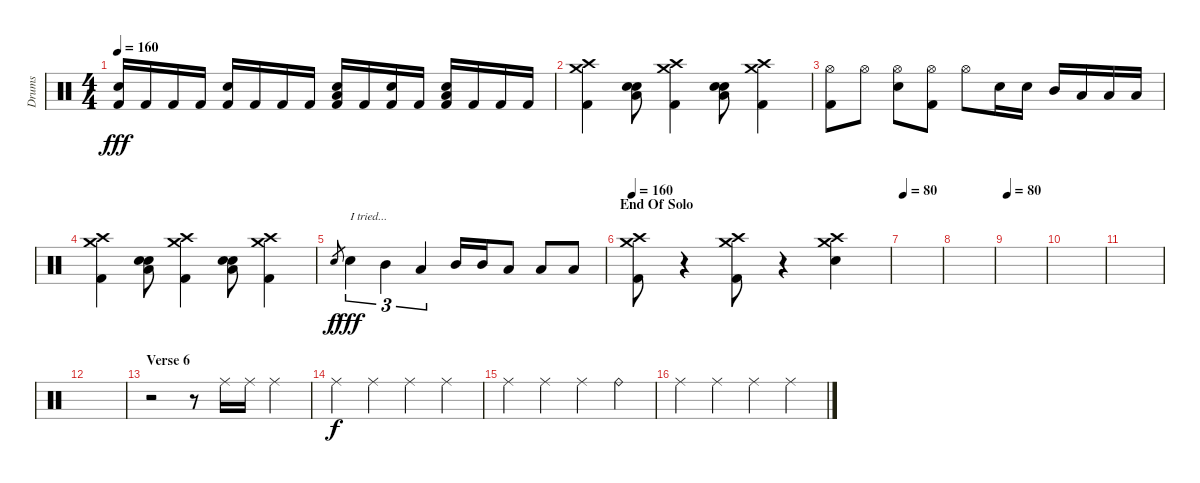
\track ("Drums" "Drums") {instrument percussion}
\staff {score}
\articulation defaults
\ts (4 4)
\tempo 160
\clef neutral
\ks c
("Snare (hit) 2" "Kick (hit) 2").16{dy fff} "Kick (hit) 2".16 "Kick (hit) 2".16 "Kick (hit) 2".16 ("Snare (hit) 2" "Kick (hit) 2").16 "Kick (hit) 2".16 "Kick (hit) 2".16 "Kick (hit) 2".16 ("Snare (hit) 2" "Low Floor Tom (hit)" "Kick (hit) 2").16 "Kick (hit) 2".16 ("Snare (hit) 2" "Kick (hit) 2").16 "Kick (hit) 2".16 ("Snare (hit) 2" "Low Floor Tom (hit)" "Kick (hit) 2").16 "Kick (hit) 2".16 "Kick (hit) 2".16 "Kick (hit) 2".16 |
("Crash medium (hit)" "Crash high (hit)" "Kick (hit) 2").4 ("Snare (hit) 2" "Electric Snare (hit)" "Low Floor Tom (hit)").8 ("Crash medium (hit)" "Crash high (hit)" "Kick (hit) 2").4 ("Snare (hit) 2" "Electric Snare (hit)" "Low Floor Tom (hit)").8 ("Crash medium (hit)" "Crash high (hit)" "Kick (hit) 2").4 |
("Hi-Hat (open)" "Kick (hit) 2").8 "Hi-Hat (open)".8 ("Hi-Hat (open)" "Snare (hit) 2").8 ("Hi-Hat (open)" "Kick (hit) 2").8 "Hi-Hat (open)".8 "Snare (hit) 2".16 "Snare (hit) 2".16 "Mid Tom (hit)".16 "Low Tom (hit)".16 "Low Tom (hit)".16 "Low Floor Tom (hit)".16 |
("Crash medium (hit)" "Crash high (hit)" "Kick (hit) 2").4 ("Snare (hit) 2" "Electric Snare (hit)" "Low Floor Tom (hit)").8 ("Crash medium (hit)" "Crash high (hit)" "Kick (hit) 2").4 ("Snare (hit) 2" "Electric Snare (hit)" "Low Floor Tom (hit)").8 ("Crash medium (hit)" "Crash high (hit)" "Kick (hit) 2").4 |
"Electric Snare (hit)".8{gr dy f} "Electric Snare (hit)".4{tu (3 2) txt "I tried..." dy fff} "Mid Tom (hit)".4{tu (3 2)} "Low Tom (hit)".4{tu (3 2)} "Mid Tom (hit)".16 "Mid Tom (hit)".16 "Low Tom (hit)".8 "Low Tom (hit)".8 "Low Floor Tom (hit)".8 |
\section ("" "End Of Solo")
\tempo 160
("Crash medium (hit)" "Crash high (hit)" "Kick (hit) 2").8 r.4 ("Crash medium (hit)" "Crash high (hit)" "Kick (hit) 2").8 r.4 ("Crash medium (hit)" "Crash high (hit)" "Snare (hit) 2").4 |
\tempo 80
|
|
\tempo 80
|
|
|
|
\section ("" "Verse 6")
r.2 r.8 "Ride (middle)".16 "Ride (middle)".16 "Ride (middle)".4 |
"Ride (middle)".4{dy f} "Ride (middle)".4 "Ride (middle)".4 "Ride (middle)".4 |
"Ride (middle)".4 "Ride (middle)".4 "Ride (middle)".4 "Ride (bell)".4 |
"Ride (middle)".4 "Ride (middle)".4 "Ride (middle)".4 "Ride (middle)".4
